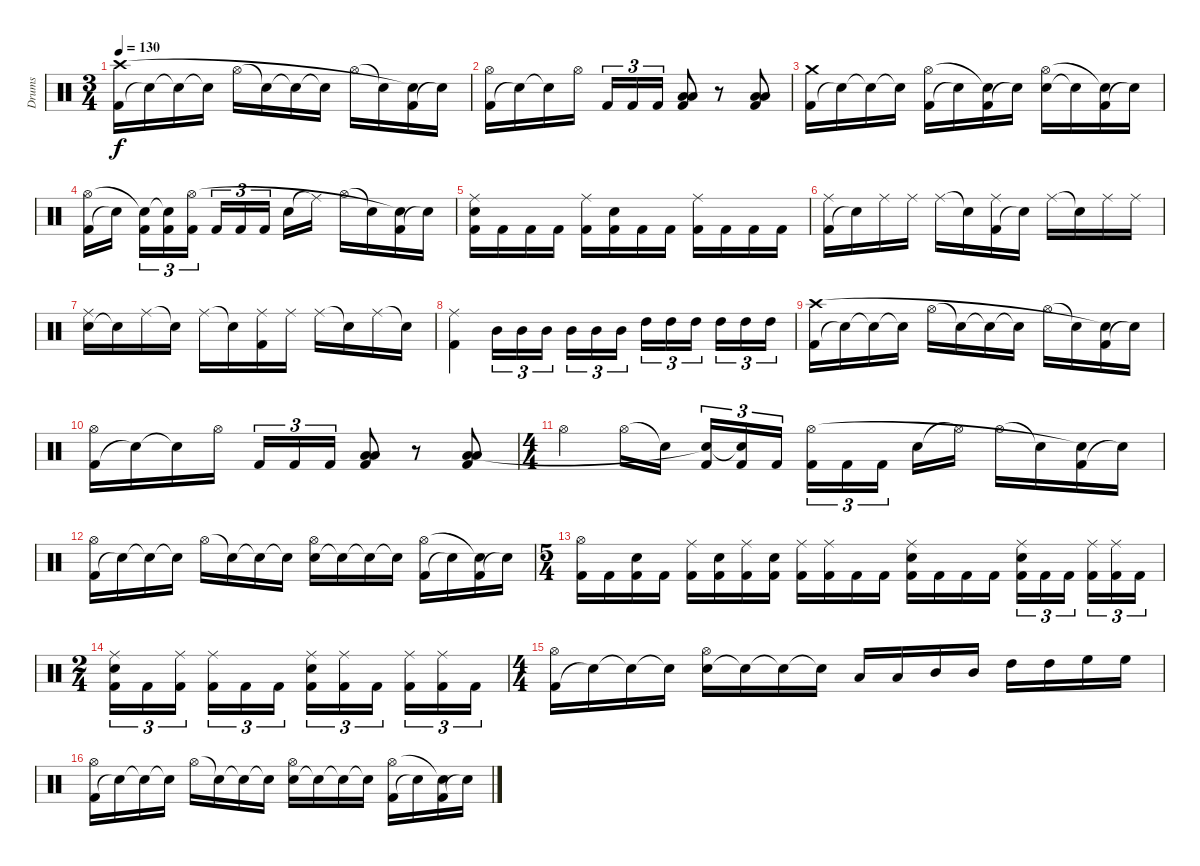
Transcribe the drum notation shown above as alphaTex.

\track ("Drums" "Drums") {instrument percussion}
\staff {score}
\articulation defaults
\ts (3 4)
\tempo 130
\clef neutral
\ks c
("Kick (hit) 2" "Crash high (hit)").16{dy f} "Snare (hit)"{t}.16 "Snare (hit)"{t}.16 "Snare (hit)"{t}.16 "Hi-Hat (open)".16 "Snare (hit)"{t}.16 "Snare (hit)"{t}.16 "Snare (hit)"{t}.16 "Hi-Hat (open)".16 "Snare (hit)"{t}.16 ("Kick (hit) 2" "Snare (hit)"{t}).16 "Snare (hit)"{t}.16 |
("Kick (hit) 2" "Hi-Hat (open)").16 "Snare (hit)"{t}.16 "Snare (hit)"{t}.16 "Hi-Hat (open)".16 "Kick (hit) 2".16{tu (3 2)} "Kick (hit) 2".16{tu (3 2)} "Kick (hit) 2".16{tu (3 2)} ("Kick (hit) 2" "Low Floor Tom (hit)" "Low Floor Tom (hit)").8 r.8 ("Kick (hit) 2" "Low Floor Tom (hit)" "Low Floor Tom (hit)").8 |
("Kick (hit) 2" "Crash medium (hit)").16 "Snare (hit)"{t}.16 "Snare (hit)"{t}.16 "Snare (hit)"{t}.16 ("Kick (hit) 2" "Hi-Hat (open)").16 "Snare (hit)"{t}.16 ("Kick (hit) 2" "Snare (hit)"{t}).16 "Snare (hit)"{t}.16 ("Snare (hit) 2" "Hi-Hat (open)").16 "Snare (hit)"{t}.16 ("Kick (hit) 2" "Snare (hit)"{t}).16 "Snare (hit)"{t}.16 |
("Kick (hit) 2" "Hi-Hat (open)").16 "Snare (hit)"{t}.16 ("Kick (hit) 2" "Snare (hit)"{t}).16{tu (3 2)} ("Kick (hit) 2" "Snare (hit)"{t}).16{tu (3 2)} ("Kick (hit) 2" "Hi-Hat (open)").16{tu (3 2)} "Kick (hit) 2".16{tu (3 2)} "Kick (hit) 2".16{tu (3 2)} "Kick (hit) 2".16{tu (3 2)} "Snare (hit) 2".16 "Ride (middle)"{t}.16 "Hi-Hat (open)".16 "Snare (hit)"{t}.16 ("Kick (hit) 2" "Snare (hit)"{t}).16 "Snare (hit)"{t}.16 |
("Kick (hit) 2" "Snare (hit) 2" "Ride (middle)").16 "Kick (hit) 2".16 "Kick (hit) 2".16 "Kick (hit) 2".16 ("Kick (hit) 2" "Ride (middle)").16 ("Kick (hit) 2" "Snare (hit) 2").16 "Kick (hit) 2".16 "Kick (hit) 2".16 ("Kick (hit) 2" "Ride (middle)").16 "Kick (hit) 2".16 "Kick (hit) 2".16 "Kick (hit) 2".16 |
("Kick (hit) 2" "Ride (middle)").16 "Snare (hit)"{t}.16 "Ride (middle)".16 "Ride (middle)".16 "Ride (middle)".16 "Snare (hit)"{t}.16 ("Kick (hit) 2" "Ride (middle)").16 "Snare (hit)"{t}.16 "Ride (middle)".16 "Snare (hit)"{t}.16 "Ride (middle)".16 "Ride (middle)".16 |
("Snare (hit) 2" "Ride (middle)").16 "Snare (hit)"{t}.16 "Ride (middle)".16 "Snare (hit)"{t}.16 "Ride (middle)".16 "Snare (hit)"{t}.16 ("Kick (hit) 2" "Ride (middle)").16 "Ride (middle)".16 "Ride (middle)".16 "Snare (hit)"{t}.16 "Ride (middle)".16 "Snare (hit)"{t}.16 |
("Kick (hit) 2" "Ride (middle)").4 "Mid Tom (hit)".16{tu (3 2)} "Mid Tom (hit)".16{tu (3 2)} "Mid Tom (hit)".16{tu (3 2)} "Mid Tom (hit)".16{tu (3 2)} "Mid Tom (hit)".16{tu (3 2)} "Mid Tom (hit)".16{tu (3 2)} "High Tom (hit)".16{tu (3 2)} "High Tom (hit)".16{tu (3 2)} "High Tom (hit)".16{tu (3 2)} "High Tom (hit)".16{tu (3 2)} "High Tom (hit)".16{tu (3 2)} "High Tom (hit)".16{tu (3 2)} |
("Kick (hit) 2" "Crash high (hit)").16 "Snare (hit)"{t}.16 "Snare (hit)"{t}.16 "Snare (hit)"{t}.16 "Hi-Hat (open)".16 "Snare (hit)"{t}.16 "Snare (hit)"{t}.16 "Snare (hit)"{t}.16 "Hi-Hat (open)".16 "Snare (hit)"{t}.16 ("Kick (hit) 2" "Snare (hit)"{t}).16 "Snare (hit)"{t}.16 |
("Kick (hit) 2" "Hi-Hat (open)").16 "Snare (hit)"{t}.16 "Snare (hit)"{t}.16 "Hi-Hat (open)".16 "Kick (hit) 2".16{tu (3 2)} "Kick (hit) 2".16{tu (3 2)} "Kick (hit) 2".16{tu (3 2)} ("Kick (hit) 2" "Low Floor Tom (hit)" "Low Floor Tom (hit)").8 r.8 ("Kick (hit) 2" "Low Floor Tom (hit)" "Low Floor Tom (hit)").8 |
\ts (4 4)
"Hi-Hat (open)".4 "Hi-Hat (open)".16 "Snare (hit)"{t}.16 ("Kick (hit) 2" "Snare (hit)"{t}).16{tu (3 2)} ("Kick (hit) 2" "Snare (hit)"{t}).16{tu (3 2)} "Kick (hit) 2".16{tu (3 2)} ("Kick (hit) 2" "Hi-Hat (open)").16{tu (3 2)} "Kick (hit) 2".16{tu (3 2)} "Kick (hit) 2".16{tu (3 2)} "Snare (hit) 2".16 "Hi-Hat (open)"{t}.16 "Hi-Hat (open)".16 "Snare (hit)"{t}.16 ("Kick (hit) 2" "Snare (hit)"{t}).16 "Snare (hit)"{t}.16 |
("Kick (hit) 2" "Hi-Hat (open)").16 "Snare (hit)"{t}.16 "Snare (hit)"{t}.16 "Snare (hit)"{t}.16 "Hi-Hat (open)".16 "Snare (hit)"{t}.16 "Snare (hit)"{t}.16 "Snare (hit)"{t}.16 ("Snare (hit) 2" "Hi-Hat (open)").16 "Snare (hit)"{t}.16 "Snare (hit)"{t}.16 "Snare (hit)"{t}.16 ("Kick (hit) 2" "Hi-Hat (open)").16 "Snare (hit)"{t}.16 ("Kick (hit) 2" "Snare (hit)"{t}).16 "Snare (hit)"{t}.16 |
\ts (5 4)
("Kick (hit) 2" "Hi-Hat (open)").16 "Kick (hit) 2".16 ("Kick (hit) 2" "Snare (hit) 2").16 "Kick (hit) 2".16 ("Kick (hit) 2" "Ride (middle)").16 ("Kick (hit) 2" "Snare (hit) 2").16 ("Kick (hit) 2" "Ride (middle)").16 ("Kick (hit) 2" "Snare (hit) 2").16 ("Kick (hit) 2" "Ride (middle)").16 ("Kick (hit) 2" "Ride (middle)").16 "Kick (hit) 2".16 "Kick (hit) 2".16 ("Kick (hit) 2" "Snare (hit) 2" "Ride (middle)").16 "Kick (hit) 2".16 "Kick (hit) 2".16 "Kick (hit) 2".16 ("Kick (hit) 2" "Snare (hit) 2" "Ride (middle)").16{tu (3 2)} "Kick (hit) 2".16{tu (3 2)} "Kick (hit) 2".16{tu (3 2)} ("Kick (hit) 2" "Ride (middle)").16{tu (3 2)} ("Kick (hit) 2" "Ride (middle)").16{tu (3 2)} "Kick (hit) 2".16{tu (3 2)} |
\ts (2 4)
("Kick (hit) 2" "Snare (hit) 2" "Ride (middle)").16{tu (3 2)} "Kick (hit) 2".16{tu (3 2)} ("Kick (hit) 2" "Ride (middle)").16{tu (3 2)} ("Kick (hit) 2" "Ride (middle)").16{tu (3 2)} "Kick (hit) 2".16{tu (3 2)} "Kick (hit) 2".16{tu (3 2)} ("Kick (hit) 2" "Snare (hit) 2" "Ride (middle)").16{tu (3 2)} ("Kick (hit) 2" "Ride (middle)").16{tu (3 2)} "Kick (hit) 2".16{tu (3 2)} ("Kick (hit) 2" "Ride (middle)").16{tu (3 2)} ("Kick (hit) 2" "Ride (middle)").16{tu (3 2)} "Kick (hit) 2".16{tu (3 2)} |
\ts (4 4)
("Kick (hit) 2" "Hi-Hat (open)").16 "Snare (hit)"{t}.16 "Snare (hit)"{t}.16 "Snare (hit)"{t}.16 ("Snare (hit) 2" "Hi-Hat (open)").16 "Snare (hit)"{t}.16 "Snare (hit)"{t}.16 "Snare (hit)"{t}.16 "Low Tom (hit)".16 "Low Tom (hit)".16 "Mid Tom (hit)".16 "Mid Tom (hit)".16 "High Tom (hit)".16 "High Tom (hit)".16 "High Floor Tom (hit)".16 "High Floor Tom (hit)".16 |
("Kick (hit) 2" "Hi-Hat (open)").16 "Snare (hit)"{t}.16 "Snare (hit)"{t}.16 "Snare (hit)"{t}.16 "Hi-Hat (open)".16 "Snare (hit)"{t}.16 "Snare (hit)"{t}.16 "Snare (hit)"{t}.16 ("Snare (hit) 2" "Hi-Hat (open)").16 "Snare (hit)"{t}.16 "Snare (hit)"{t}.16 "Snare (hit)"{t}.16 ("Kick (hit) 2" "Hi-Hat (open)").16 "Snare (hit)"{t}.16 ("Kick (hit) 2" "Snare (hit)"{t}).16 "Snare (hit)"{t}.16
